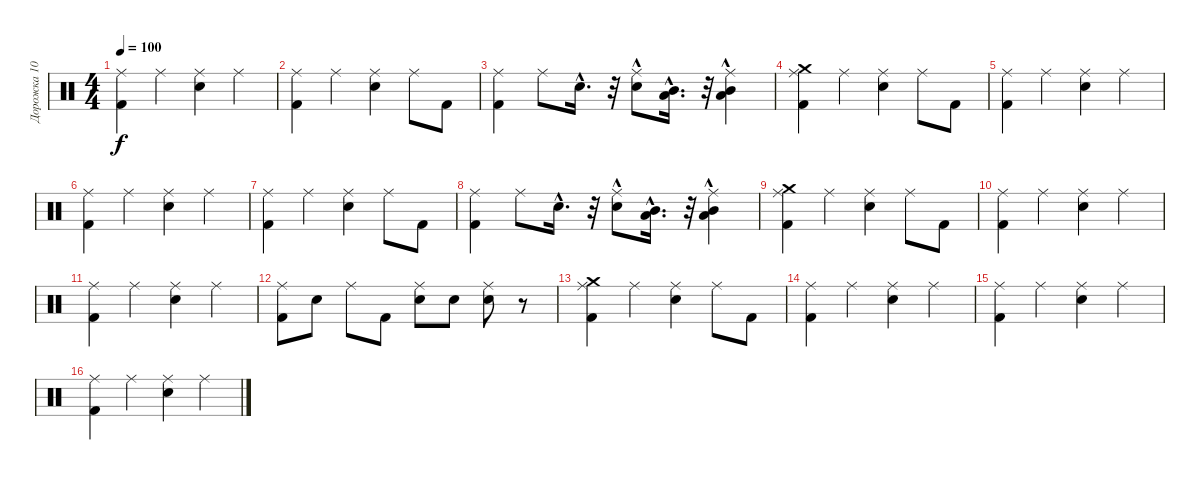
\track ("Дорожка 10" "Дорожка 10") {instrument percussion}
\staff {score}
\articulation defaults
\ts (4 4)
\tempo 100
\clef neutral
\ks c
("Ride (middle)" "Kick (hit) 2").4{dy f} "Ride (middle)".4 ("Ride (middle)" "Snare (hit) 2").4 "Ride (middle)".4 |
("Ride (middle)" "Kick (hit) 2").4 "Ride (middle)".4 ("Snare (hit) 2" "Ride (middle)").4 "Ride (middle)".8 "Kick (hit) 2".8 |
("Ride (middle)" "Kick (hit) 2").4 "Ride (middle)".8 "Snare (hit) 2"{hac}.16{d} r.32 ("Snare (hit) 2"{hac} "Ride (middle)").8 ("Mid Tom (hit)"{hac} "Low Tom (hit)"{hac}).16{d} r.32 ("Low Tom (hit)" "Mid Tom (hit)"{hac} "Ride (middle)").4 |
("Ride (middle)" "Kick (hit) 2" "Crash medium (hit)").4 "Ride (middle)".4 ("Snare (hit) 2" "Ride (middle)").4 "Ride (middle)".8 "Kick (hit) 2".8 |
("Ride (middle)" "Kick (hit) 2").4 "Ride (middle)".4 ("Ride (middle)" "Snare (hit) 2").4 "Ride (middle)".4 |
("Ride (middle)" "Kick (hit) 2").4 "Ride (middle)".4 ("Ride (middle)" "Snare (hit) 2").4 "Ride (middle)".4 |
("Ride (middle)" "Kick (hit) 2").4 "Ride (middle)".4 ("Snare (hit) 2" "Ride (middle)").4 "Ride (middle)".8 "Kick (hit) 2".8 |
("Ride (middle)" "Kick (hit) 2").4 "Ride (middle)".8 "Snare (hit) 2"{hac}.16{d} r.32 ("Snare (hit) 2"{hac} "Ride (middle)").8 ("Mid Tom (hit)"{hac} "Low Tom (hit)"{hac}).16{d} r.32 ("Low Tom (hit)" "Mid Tom (hit)"{hac} "Ride (middle)").4 |
("Ride (middle)" "Kick (hit) 2" "Crash medium (hit)").4 "Ride (middle)".4 ("Snare (hit) 2" "Ride (middle)").4 "Ride (middle)".8 "Kick (hit) 2".8 |
("Ride (middle)" "Kick (hit) 2").4 "Ride (middle)".4 ("Ride (middle)" "Snare (hit) 2").4 "Ride (middle)".4 |
("Ride (middle)" "Kick (hit) 2").4 "Ride (middle)".4 ("Ride (middle)" "Snare (hit) 2").4 "Ride (middle)".4 |
("Ride (middle)" "Kick (hit) 2").8 "Snare (hit) 2".8 "Ride (middle)".8 "Kick (hit) 2".8 ("Snare (hit) 2" "Ride (middle)").8 "Snare (hit) 2".8 ("Snare (hit) 2" "Ride (middle)").8 r.8 |
("Ride (middle)" "Kick (hit) 2" "Crash medium (hit)").4 "Ride (middle)".4 ("Snare (hit) 2" "Ride (middle)").4 "Ride (middle)".8 "Kick (hit) 2".8 |
("Ride (middle)" "Kick (hit) 2").4 "Ride (middle)".4 ("Ride (middle)" "Snare (hit) 2").4 "Ride (middle)".4 |
("Ride (middle)" "Kick (hit) 2").4 "Ride (middle)".4 ("Ride (middle)" "Snare (hit) 2").4 "Ride (middle)".4 |
("Ride (middle)" "Kick (hit) 2").4 "Ride (middle)".4 ("Ride (middle)" "Snare (hit) 2").4 "Ride (middle)".4
